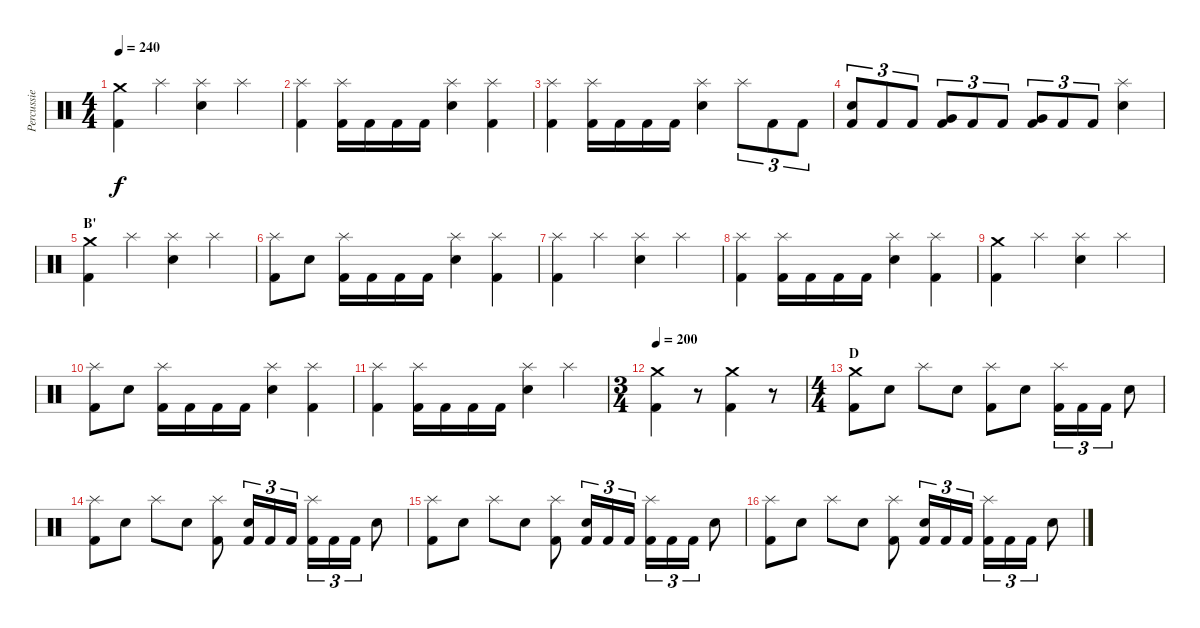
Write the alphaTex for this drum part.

\track ("Percussie" "Percussie") {instrument percussion}
\staff {score}
\articulation defaults
\ts (4 4)
\tempo 240
\clef neutral
\ks c
("Crash medium (hit)" "Kick (hit) 2").4{dy f} "Splash (hit)".4 ("Splash (hit)" "Electric Snare (hit)").4 "Splash (hit)".4 |
("Splash (hit)" "Kick (hit) 2").4 ("Splash (hit)" "Kick (hit) 2").16 "Kick (hit) 2".16 "Kick (hit) 2".16 "Kick (hit) 2".16 ("Splash (hit)" "Electric Snare (hit)").4 ("Splash (hit)" "Kick (hit) 2").4 |
("Splash (hit)" "Kick (hit) 2").4 ("Splash (hit)" "Kick (hit) 2").16 "Kick (hit) 2".16 "Kick (hit) 2".16 "Kick (hit) 2".16 ("Splash (hit)" "Electric Snare (hit)").4 "Splash (hit)".8{tu (3 2)} "Kick (hit) 2".8{tu (3 2)} "Kick (hit) 2".8{tu (3 2)} |
("Electric Snare (hit)" "Kick (hit) 2").8{tu (3 2)} "Kick (hit) 2".8{tu (3 2)} "Kick (hit) 2".8{tu (3 2)} ("Very Low Tom (hit)" "Kick (hit) 2").8{tu (3 2)} "Kick (hit) 2".8{tu (3 2)} "Kick (hit) 2".8{tu (3 2)} ("Very Low Tom (hit)" "Kick (hit) 2").8{tu (3 2)} "Kick (hit) 2".8{tu (3 2)} "Kick (hit) 2".8{tu (3 2)} ("Splash (hit)" "Electric Snare (hit)").4 |
\section ("" "B'")
("Crash medium (hit)" "Kick (hit) 2").4 "Splash (hit)".4 ("Splash (hit)" "Electric Snare (hit)").4 "Splash (hit)".4 |
("Splash (hit)" "Kick (hit) 2").8 "Electric Snare (hit)".8 ("Splash (hit)" "Kick (hit) 2").16 "Kick (hit) 2".16 "Kick (hit) 2".16 "Kick (hit) 2".16 ("Splash (hit)" "Electric Snare (hit)").4 ("Splash (hit)" "Kick (hit) 2").4 |
("Splash (hit)" "Kick (hit) 2").4 "Splash (hit)".4 ("Splash (hit)" "Electric Snare (hit)").4 "Splash (hit)".4 |
("Splash (hit)" "Kick (hit) 2").4 ("Splash (hit)" "Kick (hit) 2").16 "Kick (hit) 2".16 "Kick (hit) 2".16 "Kick (hit) 2".16 ("Splash (hit)" "Electric Snare (hit)").4 ("Splash (hit)" "Kick (hit) 2").4 |
("Crash medium (hit)" "Kick (hit) 2").4 "Splash (hit)".4 ("Splash (hit)" "Electric Snare (hit)").4 "Splash (hit)".4 |
("Splash (hit)" "Kick (hit) 2").8 "Electric Snare (hit)".8 ("Splash (hit)" "Kick (hit) 2").16 "Kick (hit) 2".16 "Kick (hit) 2".16 "Kick (hit) 2".16 ("Splash (hit)" "Electric Snare (hit)").4 ("Splash (hit)" "Kick (hit) 2").4 |
("Splash (hit)" "Kick (hit) 2").4 ("Splash (hit)" "Kick (hit) 2").16 "Kick (hit) 2".16 "Kick (hit) 2".16 "Kick (hit) 2".16 ("Splash (hit)" "Electric Snare (hit)").4 "Splash (hit)".4 |
\ts (3 4)
\tempo 200
("Crash medium (hit)" "Kick (hit) 2").4 r.8 ("Crash medium (hit)" "Kick (hit) 2").4 r.8 |
\ts (4 4)
\section ("" "D")
("Crash medium (hit)" "Kick (hit) 2").8 "Electric Snare (hit)".8 "Splash (hit)".8 "Electric Snare (hit)".8 ("Splash (hit)" "Kick (hit) 2").8 "Electric Snare (hit)".8 ("Splash (hit)" "Kick (hit) 2").16{tu (3 2)} "Kick (hit) 2".16{tu (3 2)} "Kick (hit) 2".16{tu (3 2)} "Electric Snare (hit)".8 |
("Splash (hit)" "Kick (hit) 2").8 "Electric Snare (hit)".8 "Splash (hit)".8 "Electric Snare (hit)".8 ("Splash (hit)" "Kick (hit) 2").8 ("Electric Snare (hit)" "Kick (hit) 2").16{tu (3 2)} "Kick (hit) 2".16{tu (3 2)} "Kick (hit) 2".16{tu (3 2)} ("Splash (hit)" "Kick (hit) 2").16{tu (3 2)} "Kick (hit) 2".16{tu (3 2)} "Kick (hit) 2".16{tu (3 2)} "Electric Snare (hit)".8 |
("Splash (hit)" "Kick (hit) 2").8 "Electric Snare (hit)".8 "Splash (hit)".8 "Electric Snare (hit)".8 ("Splash (hit)" "Kick (hit) 2").8 ("Electric Snare (hit)" "Kick (hit) 2").16{tu (3 2)} "Kick (hit) 2".16{tu (3 2)} "Kick (hit) 2".16{tu (3 2)} ("Splash (hit)" "Kick (hit) 2").16{tu (3 2)} "Kick (hit) 2".16{tu (3 2)} "Kick (hit) 2".16{tu (3 2)} "Electric Snare (hit)".8 |
("Splash (hit)" "Kick (hit) 2").8 "Electric Snare (hit)".8 "Splash (hit)".8 "Electric Snare (hit)".8 ("Splash (hit)" "Kick (hit) 2").8 ("Electric Snare (hit)" "Kick (hit) 2").16{tu (3 2)} "Kick (hit) 2".16{tu (3 2)} "Kick (hit) 2".16{tu (3 2)} ("Splash (hit)" "Kick (hit) 2").16{tu (3 2)} "Kick (hit) 2".16{tu (3 2)} "Kick (hit) 2".16{tu (3 2)} "Electric Snare (hit)".8
